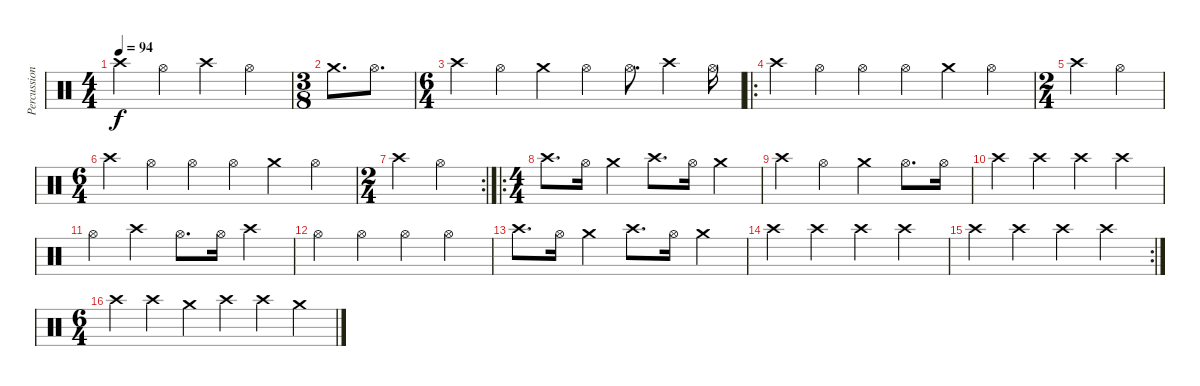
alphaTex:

\track ("Percussion" "Percussion") {instrument percussion}
\staff {score}
\articulation defaults
\ts (4 4)
\tempo 94
\clef neutral
\ks c "Crash high (hit)".4{dy f} "Hi-Hat (open)".4 "Crash high (hit)".4 "Hi-Hat (open)".4
|
\ts (3 8)
"Crash medium (hit)".8{d} "Hi-Hat (open)".8{d} |
\ts (6 4)
"Crash high (hit)".4 "Hi-Hat (open)".4 "Crash medium (hit)".4 "Hi-Hat (open)".4 "Hi-Hat (open)".8{d} "Crash high (hit)".4 "Hi-Hat (open)".16 |
\ro "Crash high (hit)".4 "Hi-Hat (open)".4 "Hi-Hat (open)".4 "Hi-Hat (open)".4 "Crash medium (hit)".4 "Hi-Hat (open)".4
|
\ts (2 4)
"Crash high (hit)".4 "Hi-Hat (open)".4 |
\ts (6 4)
"Crash high (hit)".4 "Hi-Hat (open)".4 "Hi-Hat (open)".4 "Hi-Hat (open)".4 "Crash medium (hit)".4 "Hi-Hat (open)".4 |
\rc 2
\ts (2 4)
"Crash high (hit)".4 "Hi-Hat (open)".4 |
\ro
\ts (4 4)
"Crash high (hit)".8{d} "Hi-Hat (open)".16 "Crash medium (hit)".4 "Crash high (hit)".8{d} "Hi-Hat (open)".16 "Crash medium (hit)".4 |
"Crash high (hit)".4 "Hi-Hat (open)".4 "Crash medium (hit)".4 "Hi-Hat (open)".8{d} "Hi-Hat (open)".16 |
"Crash high (hit)".4 "Crash high (hit)".4 "Crash high (hit)".4 "Crash high (hit)".4 |
"Hi-Hat (open)".4 "Crash high (hit)".4 "Hi-Hat (open)".8{d} "Hi-Hat (open)".16 "Crash high (hit)".4 |
"Hi-Hat (open)".4 "Hi-Hat (open)".4 "Hi-Hat (open)".4 "Hi-Hat (open)".4 |
"Crash high (hit)".8{d} "Hi-Hat (open)".16 "Crash medium (hit)".4 "Crash high (hit)".8{d} "Hi-Hat (open)".16 "Crash medium (hit)".4 |
"Crash high (hit)".4 "Crash high (hit)".4 "Crash high (hit)".4 "Crash high (hit)".4 |
\rc 2 "Crash high (hit)".4 "Crash high (hit)".4 "Crash high (hit)".4 "Crash high (hit)".4
|
\ts (6 4)
"Crash high (hit)".4 "Crash high (hit)".4 "Crash medium (hit)".4 "Crash high (hit)".4 "Crash high (hit)".4 "Crash medium (hit)".4
